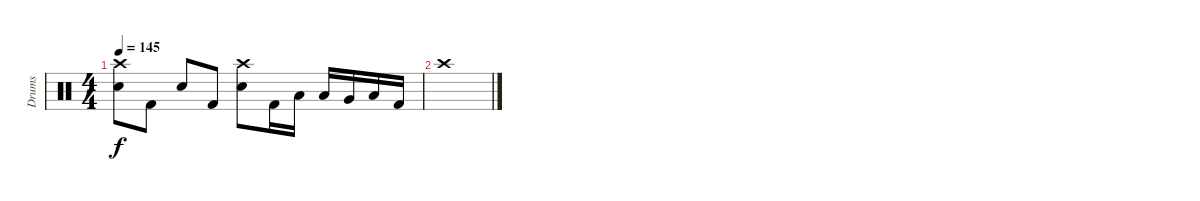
\track ("Drums" "Drums") {instrument percussion}
\staff {score}
\articulation defaults
\ts (4 4)
\tempo 145
\clef neutral
\ks c
("Crash high (hit)" "Electric Snare (hit)").8{dy f} "Kick (hit) 2".8 "Electric Snare (hit)".8 "Kick (hit) 2".8 ("Crash high (hit)" "Electric Snare (hit)").8 "Kick (hit) 2".16 "Low Tom (hit)".16 "Low Tom (hit)".16 "Very Low Tom (hit)".16 "Low Floor Tom (hit)".16 "Kick (hit) 2".16 |
"Crash high (hit)".1
